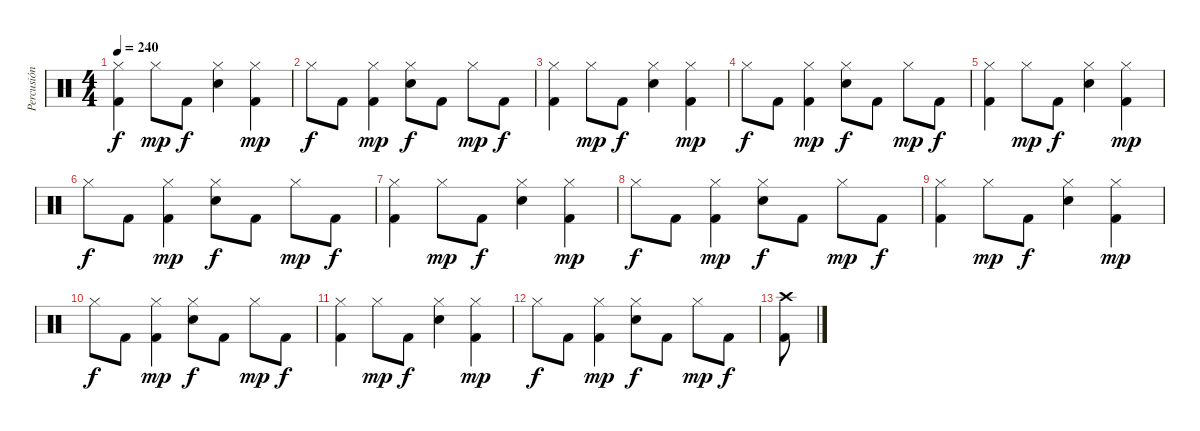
\track ("Percusión" "Percusión") {instrument percussion}
\staff {score}
\articulation defaults
\ts (4 4)
\tempo 240
\clef neutral
\ks c
("Hi-Hat (closed)" "Kick (hit) 2").4{dy f} "Hi-Hat (closed)".8{dy mp} "Kick (hit) 2".8{dy f} ("Hi-Hat (closed)" "Snare (hit) 2").4 ("Hi-Hat (closed)" "Kick (hit) 2").4{dy mp} |
"Hi-Hat (closed)".8{dy f} "Kick (hit) 2".8 ("Hi-Hat (closed)" "Kick (hit) 2").4{dy mp} ("Hi-Hat (closed)" "Snare (hit) 2").8{dy f} "Kick (hit) 2".8 "Hi-Hat (closed)".8{dy mp} "Kick (hit) 2".8{dy f} |
("Hi-Hat (closed)" "Kick (hit) 2").4 "Hi-Hat (closed)".8{dy mp} "Kick (hit) 2".8{dy f} ("Hi-Hat (closed)" "Snare (hit) 2").4 ("Hi-Hat (closed)" "Kick (hit) 2").4{dy mp} |
"Hi-Hat (closed)".8{dy f} "Kick (hit) 2".8 ("Hi-Hat (closed)" "Kick (hit) 2").4{dy mp} ("Hi-Hat (closed)" "Snare (hit) 2").8{dy f} "Kick (hit) 2".8 "Hi-Hat (closed)".8{dy mp} "Kick (hit) 2".8{dy f} |
("Hi-Hat (closed)" "Kick (hit) 2").4 "Hi-Hat (closed)".8{dy mp} "Kick (hit) 2".8{dy f} ("Hi-Hat (closed)" "Snare (hit) 2").4 ("Hi-Hat (closed)" "Kick (hit) 2").4{dy mp} |
"Hi-Hat (closed)".8{dy f} "Kick (hit) 2".8 ("Hi-Hat (closed)" "Kick (hit) 2").4{dy mp} ("Hi-Hat (closed)" "Snare (hit) 2").8{dy f} "Kick (hit) 2".8 "Hi-Hat (closed)".8{dy mp} "Kick (hit) 2".8{dy f} |
("Hi-Hat (closed)" "Kick (hit) 2").4 "Hi-Hat (closed)".8{dy mp} "Kick (hit) 2".8{dy f} ("Hi-Hat (closed)" "Snare (hit) 2").4 ("Hi-Hat (closed)" "Kick (hit) 2").4{dy mp} |
"Hi-Hat (closed)".8{dy f} "Kick (hit) 2".8 ("Hi-Hat (closed)" "Kick (hit) 2").4{dy mp} ("Hi-Hat (closed)" "Snare (hit) 2").8{dy f} "Kick (hit) 2".8 "Hi-Hat (closed)".8{dy mp} "Kick (hit) 2".8{dy f} |
("Hi-Hat (closed)" "Kick (hit) 2").4 "Hi-Hat (closed)".8{dy mp} "Kick (hit) 2".8{dy f} ("Hi-Hat (closed)" "Snare (hit) 2").4 ("Hi-Hat (closed)" "Kick (hit) 2").4{dy mp} |
"Hi-Hat (closed)".8{dy f} "Kick (hit) 2".8 ("Hi-Hat (closed)" "Kick (hit) 2").4{dy mp} ("Hi-Hat (closed)" "Snare (hit) 2").8{dy f} "Kick (hit) 2".8 "Hi-Hat (closed)".8{dy mp} "Kick (hit) 2".8{dy f} |
("Hi-Hat (closed)" "Kick (hit) 2").4 "Hi-Hat (closed)".8{dy mp} "Kick (hit) 2".8{dy f} ("Hi-Hat (closed)" "Snare (hit) 2").4 ("Hi-Hat (closed)" "Kick (hit) 2").4{dy mp} |
"Hi-Hat (closed)".8{dy f} "Kick (hit) 2".8 ("Hi-Hat (closed)" "Kick (hit) 2").4{dy mp} ("Hi-Hat (closed)" "Snare (hit) 2").8{dy f} "Kick (hit) 2".8 "Hi-Hat (closed)".8{dy mp} "Kick (hit) 2".8{dy f} |
("Crash high (hit)" "Kick (hit) 2").8
